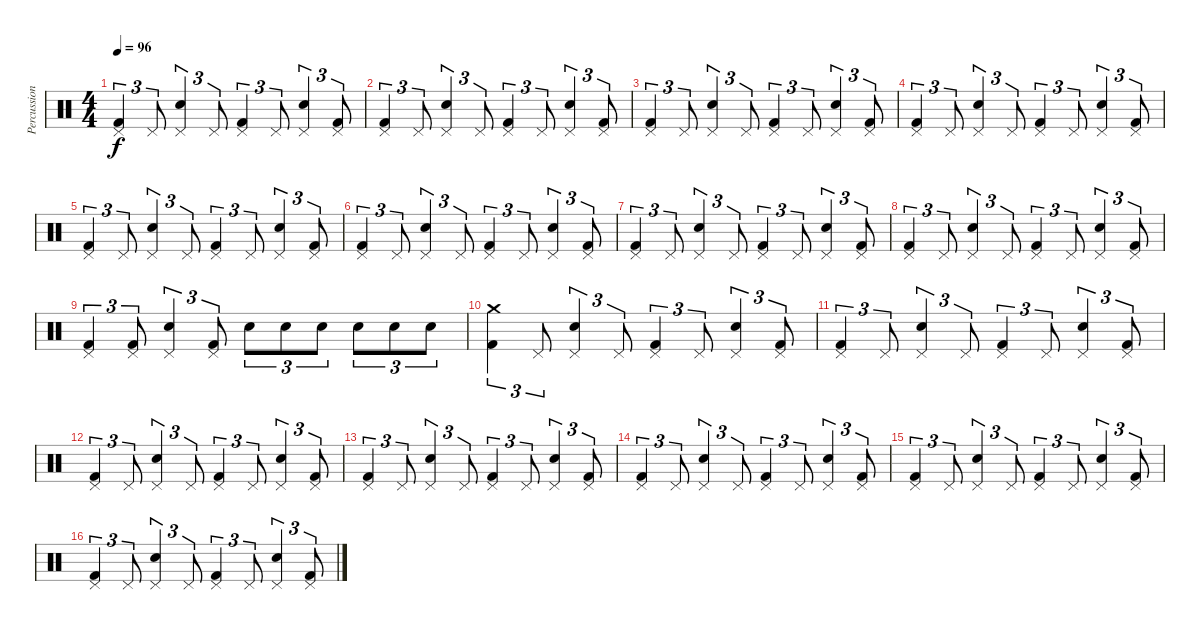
\track ("Percussioni" "Percussion") {instrument percussion}
\staff {score}
\articulation defaults
\ts (4 4)
\tempo 96
\clef neutral
\ks c
("Kick (hit) 2" "Pedal Hi-Hat (hit)").4{tu (3 2) dy f} "Pedal Hi-Hat (hit)".8{tu (3 2)} ("Electric Snare (hit)" "Pedal Hi-Hat (hit)").4{tu (3 2)} "Pedal Hi-Hat (hit)".8{tu (3 2)} ("Kick (hit) 2" "Pedal Hi-Hat (hit)").4{tu (3 2)} "Pedal Hi-Hat (hit)".8{tu (3 2)} ("Electric Snare (hit)" "Pedal Hi-Hat (hit)").4{tu (3 2)} ("Kick (hit) 2" "Pedal Hi-Hat (hit)").8{tu (3 2)} |
("Kick (hit) 2" "Pedal Hi-Hat (hit)").4{tu (3 2)} "Pedal Hi-Hat (hit)".8{tu (3 2)} ("Electric Snare (hit)" "Pedal Hi-Hat (hit)").4{tu (3 2)} "Pedal Hi-Hat (hit)".8{tu (3 2)} ("Kick (hit) 2" "Pedal Hi-Hat (hit)").4{tu (3 2)} "Pedal Hi-Hat (hit)".8{tu (3 2)} ("Electric Snare (hit)" "Pedal Hi-Hat (hit)").4{tu (3 2)} ("Kick (hit) 2" "Pedal Hi-Hat (hit)").8{tu (3 2)} |
("Kick (hit) 2" "Pedal Hi-Hat (hit)").4{tu (3 2)} "Pedal Hi-Hat (hit)".8{tu (3 2)} ("Electric Snare (hit)" "Pedal Hi-Hat (hit)").4{tu (3 2)} "Pedal Hi-Hat (hit)".8{tu (3 2)} ("Kick (hit) 2" "Pedal Hi-Hat (hit)").4{tu (3 2)} "Pedal Hi-Hat (hit)".8{tu (3 2)} ("Electric Snare (hit)" "Pedal Hi-Hat (hit)").4{tu (3 2)} ("Kick (hit) 2" "Pedal Hi-Hat (hit)").8{tu (3 2)} |
("Kick (hit) 2" "Pedal Hi-Hat (hit)").4{tu (3 2)} "Pedal Hi-Hat (hit)".8{tu (3 2)} ("Electric Snare (hit)" "Pedal Hi-Hat (hit)").4{tu (3 2)} "Pedal Hi-Hat (hit)".8{tu (3 2)} ("Kick (hit) 2" "Pedal Hi-Hat (hit)").4{tu (3 2)} "Pedal Hi-Hat (hit)".8{tu (3 2)} ("Electric Snare (hit)" "Pedal Hi-Hat (hit)").4{tu (3 2)} ("Kick (hit) 2" "Pedal Hi-Hat (hit)").8{tu (3 2)} |
("Kick (hit) 2" "Pedal Hi-Hat (hit)").4{tu (3 2)} "Pedal Hi-Hat (hit)".8{tu (3 2)} ("Electric Snare (hit)" "Pedal Hi-Hat (hit)").4{tu (3 2)} "Pedal Hi-Hat (hit)".8{tu (3 2)} ("Kick (hit) 2" "Pedal Hi-Hat (hit)").4{tu (3 2)} "Pedal Hi-Hat (hit)".8{tu (3 2)} ("Electric Snare (hit)" "Pedal Hi-Hat (hit)").4{tu (3 2)} ("Kick (hit) 2" "Pedal Hi-Hat (hit)").8{tu (3 2)} |
("Kick (hit) 2" "Pedal Hi-Hat (hit)").4{tu (3 2)} "Pedal Hi-Hat (hit)".8{tu (3 2)} ("Electric Snare (hit)" "Pedal Hi-Hat (hit)").4{tu (3 2)} "Pedal Hi-Hat (hit)".8{tu (3 2)} ("Kick (hit) 2" "Pedal Hi-Hat (hit)").4{tu (3 2)} "Pedal Hi-Hat (hit)".8{tu (3 2)} ("Electric Snare (hit)" "Pedal Hi-Hat (hit)").4{tu (3 2)} ("Kick (hit) 2" "Pedal Hi-Hat (hit)").8{tu (3 2)} |
("Kick (hit) 2" "Pedal Hi-Hat (hit)").4{tu (3 2)} "Pedal Hi-Hat (hit)".8{tu (3 2)} ("Electric Snare (hit)" "Pedal Hi-Hat (hit)").4{tu (3 2)} "Pedal Hi-Hat (hit)".8{tu (3 2)} ("Kick (hit) 2" "Pedal Hi-Hat (hit)").4{tu (3 2)} "Pedal Hi-Hat (hit)".8{tu (3 2)} ("Electric Snare (hit)" "Pedal Hi-Hat (hit)").4{tu (3 2)} ("Kick (hit) 2" "Pedal Hi-Hat (hit)").8{tu (3 2)} |
("Kick (hit) 2" "Pedal Hi-Hat (hit)").4{tu (3 2)} "Pedal Hi-Hat (hit)".8{tu (3 2)} ("Electric Snare (hit)" "Pedal Hi-Hat (hit)").4{tu (3 2)} "Pedal Hi-Hat (hit)".8{tu (3 2)} ("Kick (hit) 2" "Pedal Hi-Hat (hit)").4{tu (3 2)} "Pedal Hi-Hat (hit)".8{tu (3 2)} ("Electric Snare (hit)" "Pedal Hi-Hat (hit)").4{tu (3 2)} ("Kick (hit) 2" "Pedal Hi-Hat (hit)").8{tu (3 2)} |
("Kick (hit) 2" "Pedal Hi-Hat (hit)").4{tu (3 2)} ("Kick (hit) 2" "Pedal Hi-Hat (hit)").8{tu (3 2)} ("Electric Snare (hit)" "Pedal Hi-Hat (hit)").4{tu (3 2)} ("Kick (hit) 2" "Pedal Hi-Hat (hit)").8{tu (3 2)} "Electric Snare (hit)".8{tu (3 2)} "Electric Snare (hit)".8{tu (3 2)} "Electric Snare (hit)".8{tu (3 2)} "Electric Snare (hit)".8{tu (3 2)} "Electric Snare (hit)".8{tu (3 2)} "Electric Snare (hit)".8{tu (3 2)} |
("Kick (hit) 2" "Crash medium (hit)").4{tu (3 2)} "Pedal Hi-Hat (hit)".8{tu (3 2)} ("Electric Snare (hit)" "Pedal Hi-Hat (hit)").4{tu (3 2)} "Pedal Hi-Hat (hit)".8{tu (3 2)} ("Kick (hit) 2" "Pedal Hi-Hat (hit)").4{tu (3 2)} "Pedal Hi-Hat (hit)".8{tu (3 2)} ("Electric Snare (hit)" "Pedal Hi-Hat (hit)").4{tu (3 2)} ("Kick (hit) 2" "Pedal Hi-Hat (hit)").8{tu (3 2)} |
("Kick (hit) 2" "Pedal Hi-Hat (hit)").4{tu (3 2)} "Pedal Hi-Hat (hit)".8{tu (3 2)} ("Electric Snare (hit)" "Pedal Hi-Hat (hit)").4{tu (3 2)} "Pedal Hi-Hat (hit)".8{tu (3 2)} ("Kick (hit) 2" "Pedal Hi-Hat (hit)").4{tu (3 2)} "Pedal Hi-Hat (hit)".8{tu (3 2)} ("Electric Snare (hit)" "Pedal Hi-Hat (hit)").4{tu (3 2)} ("Kick (hit) 2" "Pedal Hi-Hat (hit)").8{tu (3 2)} |
("Kick (hit) 2" "Pedal Hi-Hat (hit)").4{tu (3 2)} "Pedal Hi-Hat (hit)".8{tu (3 2)} ("Electric Snare (hit)" "Pedal Hi-Hat (hit)").4{tu (3 2)} "Pedal Hi-Hat (hit)".8{tu (3 2)} ("Kick (hit) 2" "Pedal Hi-Hat (hit)").4{tu (3 2)} "Pedal Hi-Hat (hit)".8{tu (3 2)} ("Electric Snare (hit)" "Pedal Hi-Hat (hit)").4{tu (3 2)} ("Kick (hit) 2" "Pedal Hi-Hat (hit)").8{tu (3 2)} |
("Kick (hit) 2" "Pedal Hi-Hat (hit)").4{tu (3 2)} "Pedal Hi-Hat (hit)".8{tu (3 2)} ("Electric Snare (hit)" "Pedal Hi-Hat (hit)").4{tu (3 2)} "Pedal Hi-Hat (hit)".8{tu (3 2)} ("Kick (hit) 2" "Pedal Hi-Hat (hit)").4{tu (3 2)} "Pedal Hi-Hat (hit)".8{tu (3 2)} ("Electric Snare (hit)" "Pedal Hi-Hat (hit)").4{tu (3 2)} ("Kick (hit) 2" "Pedal Hi-Hat (hit)").8{tu (3 2)} |
("Kick (hit) 2" "Pedal Hi-Hat (hit)").4{tu (3 2)} "Pedal Hi-Hat (hit)".8{tu (3 2)} ("Electric Snare (hit)" "Pedal Hi-Hat (hit)").4{tu (3 2)} "Pedal Hi-Hat (hit)".8{tu (3 2)} ("Kick (hit) 2" "Pedal Hi-Hat (hit)").4{tu (3 2)} "Pedal Hi-Hat (hit)".8{tu (3 2)} ("Electric Snare (hit)" "Pedal Hi-Hat (hit)").4{tu (3 2)} ("Kick (hit) 2" "Pedal Hi-Hat (hit)").8{tu (3 2)} |
("Kick (hit) 2" "Pedal Hi-Hat (hit)").4{tu (3 2)} "Pedal Hi-Hat (hit)".8{tu (3 2)} ("Electric Snare (hit)" "Pedal Hi-Hat (hit)").4{tu (3 2)} "Pedal Hi-Hat (hit)".8{tu (3 2)} ("Kick (hit) 2" "Pedal Hi-Hat (hit)").4{tu (3 2)} "Pedal Hi-Hat (hit)".8{tu (3 2)} ("Electric Snare (hit)" "Pedal Hi-Hat (hit)").4{tu (3 2)} ("Kick (hit) 2" "Pedal Hi-Hat (hit)").8{tu (3 2)} |
("Kick (hit) 2" "Pedal Hi-Hat (hit)").4{tu (3 2)} "Pedal Hi-Hat (hit)".8{tu (3 2)} ("Electric Snare (hit)" "Pedal Hi-Hat (hit)").4{tu (3 2)} "Pedal Hi-Hat (hit)".8{tu (3 2)} ("Kick (hit) 2" "Pedal Hi-Hat (hit)").4{tu (3 2)} "Pedal Hi-Hat (hit)".8{tu (3 2)} ("Electric Snare (hit)" "Pedal Hi-Hat (hit)").4{tu (3 2)} ("Kick (hit) 2" "Pedal Hi-Hat (hit)").8{tu (3 2)}
